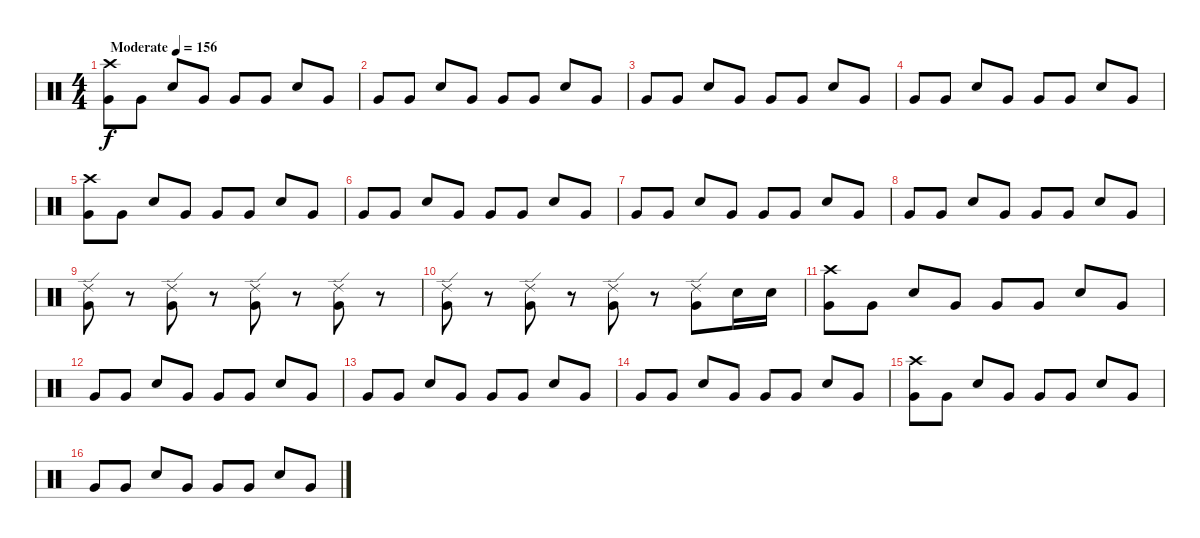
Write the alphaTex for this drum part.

\track "" {instrument percussion}
\staff {score}
\articulation defaults
\ts (4 4)
\tempo (156 "Moderate")
\clef neutral
\ks c
("Very Low Tom (hit)" "Crash high (hit)").8{dy f} "Very Low Tom (hit)".8 "Electric Snare (hit)".8 "Very Low Tom (hit)".8 "Very Low Tom (hit)".8 "Very Low Tom (hit)".8 "Electric Snare (hit)".8 "Very Low Tom (hit)".8 |
"Very Low Tom (hit)".8 "Very Low Tom (hit)".8 "Electric Snare (hit)".8 "Very Low Tom (hit)".8 "Very Low Tom (hit)".8 "Very Low Tom (hit)".8 "Electric Snare (hit)".8 "Very Low Tom (hit)".8 |
"Very Low Tom (hit)".8 "Very Low Tom (hit)".8 "Electric Snare (hit)".8 "Very Low Tom (hit)".8 "Very Low Tom (hit)".8 "Very Low Tom (hit)".8 "Electric Snare (hit)".8 "Very Low Tom (hit)".8 |
"Very Low Tom (hit)".8 "Very Low Tom (hit)".8 "Electric Snare (hit)".8 "Very Low Tom (hit)".8 "Very Low Tom (hit)".8 "Very Low Tom (hit)".8 "Electric Snare (hit)".8 "Very Low Tom (hit)".8 |
("Very Low Tom (hit)" "Crash high (hit)").8 "Very Low Tom (hit)".8 "Electric Snare (hit)".8 "Very Low Tom (hit)".8 "Very Low Tom (hit)".8 "Very Low Tom (hit)".8 "Electric Snare (hit)".8 "Very Low Tom (hit)".8 |
"Very Low Tom (hit)".8 "Very Low Tom (hit)".8 "Electric Snare (hit)".8 "Very Low Tom (hit)".8 "Very Low Tom (hit)".8 "Very Low Tom (hit)".8 "Electric Snare (hit)".8 "Very Low Tom (hit)".8 |
"Very Low Tom (hit)".8 "Very Low Tom (hit)".8 "Electric Snare (hit)".8 "Very Low Tom (hit)".8 "Very Low Tom (hit)".8 "Very Low Tom (hit)".8 "Electric Snare (hit)".8 "Very Low Tom (hit)".8 |
"Very Low Tom (hit)".8 "Very Low Tom (hit)".8 "Electric Snare (hit)".8 "Very Low Tom (hit)".8 "Very Low Tom (hit)".8 "Very Low Tom (hit)".8 "Electric Snare (hit)".8 "Very Low Tom (hit)".8 |
("Ride (edge) 2" "Very Low Tom (hit)").8 r.8 ("Ride (edge) 2" "Very Low Tom (hit)").8 r.8 ("Ride (edge) 2" "Very Low Tom (hit)").8 r.8 ("Ride (edge) 2" "Very Low Tom (hit)").8 r.8 |
("Ride (edge) 2" "Very Low Tom (hit)").8 r.8 ("Ride (edge) 2" "Very Low Tom (hit)").8 r.8 ("Ride (edge) 2" "Very Low Tom (hit)").8 r.8 ("Very Low Tom (hit)" "Ride (edge) 2").8 "Electric Snare (hit)".16 "Electric Snare (hit)".16 |
("Very Low Tom (hit)" "Crash high (hit)").8{volume 14} "Very Low Tom (hit)".8 "Electric Snare (hit)".8 "Very Low Tom (hit)".8 "Very Low Tom (hit)".8 "Very Low Tom (hit)".8 "Electric Snare (hit)".8 "Very Low Tom (hit)".8 |
"Very Low Tom (hit)".8 "Very Low Tom (hit)".8 "Electric Snare (hit)".8 "Very Low Tom (hit)".8 "Very Low Tom (hit)".8 "Very Low Tom (hit)".8 "Electric Snare (hit)".8 "Very Low Tom (hit)".8 |
"Very Low Tom (hit)".8 "Very Low Tom (hit)".8 "Electric Snare (hit)".8 "Very Low Tom (hit)".8 "Very Low Tom (hit)".8 "Very Low Tom (hit)".8 "Electric Snare (hit)".8 "Very Low Tom (hit)".8 |
"Very Low Tom (hit)".8 "Very Low Tom (hit)".8 "Electric Snare (hit)".8 "Very Low Tom (hit)".8 "Very Low Tom (hit)".8 "Very Low Tom (hit)".8 "Electric Snare (hit)".8 "Very Low Tom (hit)".8 |
("Very Low Tom (hit)" "Crash high (hit)").8{volume 14} "Very Low Tom (hit)".8 "Electric Snare (hit)".8 "Very Low Tom (hit)".8 "Very Low Tom (hit)".8 "Very Low Tom (hit)".8 "Electric Snare (hit)".8 "Very Low Tom (hit)".8 |
"Very Low Tom (hit)".8 "Very Low Tom (hit)".8 "Electric Snare (hit)".8 "Very Low Tom (hit)".8 "Very Low Tom (hit)".8 "Very Low Tom (hit)".8 "Electric Snare (hit)".8 "Very Low Tom (hit)".8
